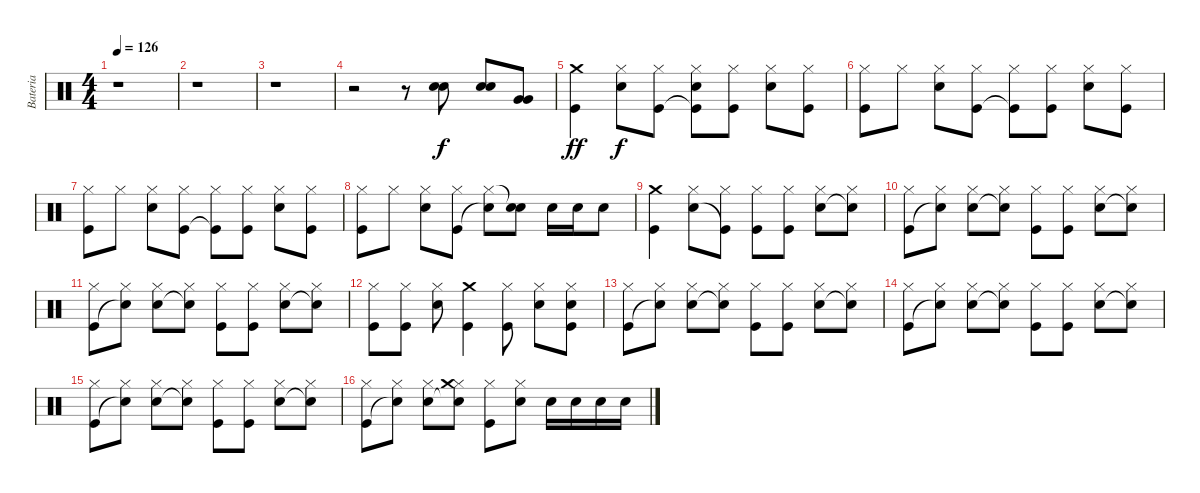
\track ("Bateria" "Bateria") {instrument percussion}
\staff {score}
\articulation defaults
\ts (4 4)
\tempo 126
\clef neutral
\ks c
r.1{dy f} |
r.1 |
r.1 |
r.2 r.8 ("Snare (hit) 2" "Snare (hit) 2").8 ("Snare (hit) 2" "Snare (hit) 2").8 ("Very Low Tom (hit)" "Very Low Tom (hit)").8 |
("Kick (hit)" "Crash medium (hit)").4{dy ff} ("Snare (hit) 2" "Hi-Hat (closed)").8{dy f} ("Kick (hit)" "Hi-Hat (closed)").8 ("Kick (hit)"{t} "Hi-Hat (closed)" "Snare (hit)").8 ("Kick (hit)" "Hi-Hat (closed)").8 ("Snare (hit) 2" "Hi-Hat (closed)").8 ("Kick (hit)" "Hi-Hat (closed)").8 |
("Kick (hit)" "Hi-Hat (closed)").8 "Hi-Hat (closed)".8 ("Snare (hit) 2" "Hi-Hat (closed)").8 ("Kick (hit)" "Hi-Hat (closed)").8 ("Kick (hit)"{t} "Hi-Hat (closed)").8 ("Kick (hit)" "Hi-Hat (closed)").8 ("Snare (hit) 2" "Hi-Hat (closed)").8 ("Kick (hit)" "Hi-Hat (closed)").8 |
("Kick (hit)" "Hi-Hat (closed)").8 "Hi-Hat (closed)".8 ("Snare (hit) 2" "Hi-Hat (closed)").8 ("Kick (hit)" "Hi-Hat (closed)").8 ("Kick (hit)"{t} "Hi-Hat (closed)").8 ("Kick (hit)" "Hi-Hat (closed)").8 ("Snare (hit) 2" "Hi-Hat (closed)").8 ("Kick (hit)" "Hi-Hat (closed)").8 |
("Kick (hit)" "Hi-Hat (closed)").8 "Hi-Hat (closed)".8 ("Snare (hit) 2" "Hi-Hat (closed)").8 ("Kick (hit)" "Hi-Hat (closed)").8 ("Snare (hit) 2"{t} "Hi-Hat (closed)").8 ("Snare (hit) 2" "Snare (hit) 2"{t}).8 "Snare (hit) 2".16 "Snare (hit) 2".16 "Snare (hit) 2".8 |
("Kick (hit)" "Crash medium (hit)").4 ("Snare (hit) 2" "Hi-Hat (closed)").8 ("Kick (hit)"{t} "Hi-Hat (closed)").8 ("Kick (hit)" "Hi-Hat (closed)").8 ("Kick (hit)" "Hi-Hat (closed)").8 ("Snare (hit) 2" "Hi-Hat (closed)").8 ("Snare (hit)"{t} "Hi-Hat (closed)").8 |
("Kick (hit)" "Hi-Hat (closed)").8 ("Snare (hit)"{t} "Hi-Hat (closed)").8 ("Snare (hit) 2" "Hi-Hat (closed)").8 ("Snare (hit)"{t} "Hi-Hat (closed)").8 ("Kick (hit)" "Hi-Hat (closed)").8 ("Kick (hit)" "Hi-Hat (closed)").8 ("Snare (hit) 2" "Hi-Hat (closed)").8 ("Snare (hit)"{t} "Hi-Hat (closed)").8 |
("Kick (hit)" "Hi-Hat (closed)").8 ("Snare (hit)"{t} "Hi-Hat (closed)").8 ("Snare (hit) 2" "Hi-Hat (closed)").8 ("Snare (hit)"{t} "Hi-Hat (closed)").8 ("Kick (hit)" "Hi-Hat (closed)").8 ("Kick (hit)" "Hi-Hat (closed)").8 ("Snare (hit) 2" "Hi-Hat (closed)").8 ("Snare (hit)"{t} "Hi-Hat (closed)").8 |
("Kick (hit)" "Hi-Hat (closed)").8 ("Kick (hit)" "Hi-Hat (closed)").8 ("Snare (hit) 2" "Hi-Hat (closed)").8 ("Kick (hit)" "Crash medium (hit)").4 ("Kick (hit)" "Hi-Hat (closed)").8 ("Snare (hit) 2" "Hi-Hat (closed)").8 ("Kick (hit)" "Hi-Hat (closed)" "Snare (hit)").8 |
("Kick (hit)" "Hi-Hat (closed)").8 ("Snare (hit)"{t} "Hi-Hat (closed)").8 ("Snare (hit) 2" "Hi-Hat (closed)").8 ("Snare (hit)"{t} "Hi-Hat (closed)").8 ("Kick (hit)" "Hi-Hat (closed)").8 ("Kick (hit)" "Hi-Hat (closed)").8 ("Snare (hit) 2" "Hi-Hat (closed)").8 ("Snare (hit)"{t} "Hi-Hat (closed)").8 |
("Kick (hit)" "Hi-Hat (closed)").8 ("Snare (hit)"{t} "Hi-Hat (closed)").8 ("Snare (hit) 2" "Hi-Hat (closed)").8 ("Snare (hit)"{t} "Hi-Hat (closed)").8 ("Kick (hit)" "Hi-Hat (closed)").8 ("Kick (hit)" "Hi-Hat (closed)").8 ("Snare (hit) 2" "Hi-Hat (closed)").8 ("Snare (hit)"{t} "Hi-Hat (closed)").8 |
("Kick (hit)" "Hi-Hat (closed)").8 ("Snare (hit)"{t} "Hi-Hat (closed)").8 ("Snare (hit) 2" "Hi-Hat (closed)").8 ("Snare (hit)"{t} "Hi-Hat (closed)").8 ("Kick (hit)" "Hi-Hat (closed)").8 ("Kick (hit)" "Hi-Hat (closed)").8 ("Snare (hit) 2" "Hi-Hat (closed)").8 ("Snare (hit)"{t} "Hi-Hat (closed)").8 |
("Kick (hit)" "Hi-Hat (closed)").8 ("Snare (hit)"{t} "Hi-Hat (closed)").8 ("Snare (hit) 2" "Hi-Hat (closed)").8 ("Snare (hit)"{t} "Hi-Hat (closed)" "Crash medium (hit)").8 ("Kick (hit)" "Hi-Hat (closed)").8 ("Snare (hit) 2" "Hi-Hat (closed)").8 "Snare (hit) 2".16 "Snare (hit) 2".16 "Snare (hit) 2".16 "Snare (hit) 2".16
